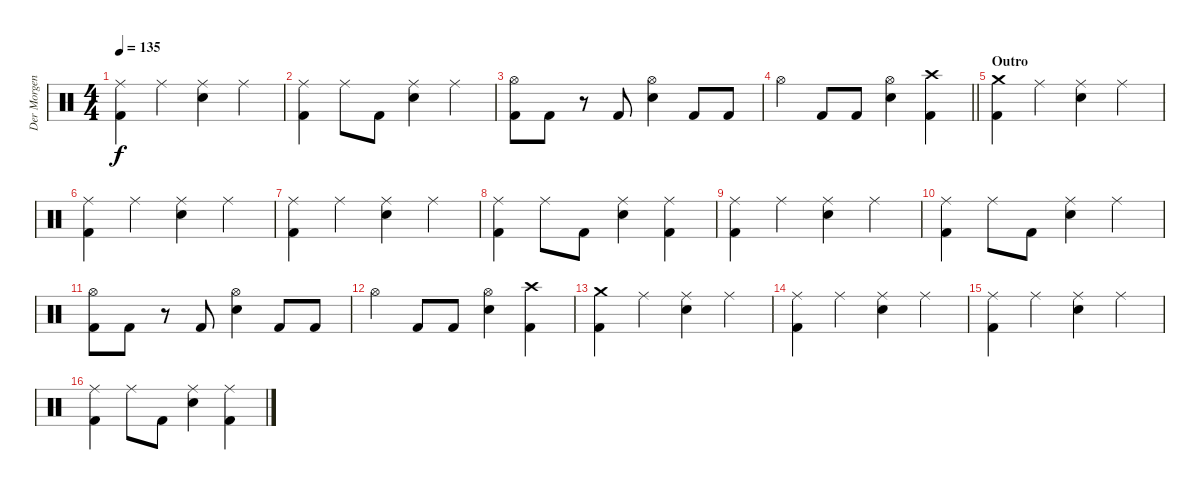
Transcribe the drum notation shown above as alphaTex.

\track ("Der Morgenstern" "Der Morgen") {instrument percussion}
\staff {score}
\articulation defaults
\ts (4 4)
\tempo 135
\clef neutral
\ks c
("Ride (middle)" "Kick (hit) 2").4{dy f} "Ride (middle)".4 ("Ride (middle)" "Electric Snare (hit)").4 "Ride (middle)".4 |
("Ride (middle)" "Kick (hit) 2").4 "Ride (middle)".8 "Kick (hit) 2".8 ("Ride (middle)" "Electric Snare (hit)").4 "Ride (middle)".4 |
("Hi-Hat (open)" "Kick (hit) 2").8 "Kick (hit) 2".8 r.8 "Kick (hit) 2".8 ("Hi-Hat (open)" "Electric Snare (hit)").4 "Kick (hit) 2".8 "Kick (hit) 2".8 |
\barLineRight lightlight "Hi-Hat (open)".4 "Kick (hit) 2".8 "Kick (hit) 2".8
("Hi-Hat (open)" "Electric Snare (hit)").4 ("Crash high (hit)" "Kick (hit) 2").4 |
\section ("" "Outro")
("Crash medium (hit)" "Kick (hit) 2").4 "Ride (middle)".4 ("Ride (middle)" "Electric Snare (hit)").4 "Ride (middle)".4 |
("Ride (middle)" "Kick (hit) 2").4 "Ride (middle)".4 ("Ride (middle)" "Electric Snare (hit)").4 "Ride (middle)".4 |
("Ride (middle)" "Kick (hit) 2").4 "Ride (middle)".4 ("Ride (middle)" "Electric Snare (hit)").4 "Ride (middle)".4 |
("Ride (middle)" "Kick (hit) 2").4 "Ride (middle)".8 "Kick (hit) 2".8 ("Ride (middle)" "Electric Snare (hit)").4 ("Ride (middle)" "Kick (hit) 2").4 |
("Ride (middle)" "Kick (hit) 2").4 "Ride (middle)".4 ("Ride (middle)" "Electric Snare (hit)").4 "Ride (middle)".4 |
("Ride (middle)" "Kick (hit) 2").4 "Ride (middle)".8 "Kick (hit) 2".8 ("Ride (middle)" "Electric Snare (hit)").4 "Ride (middle)".4 |
("Hi-Hat (open)" "Kick (hit) 2").8 "Kick (hit) 2".8 r.8 "Kick (hit) 2".8 ("Hi-Hat (open)" "Electric Snare (hit)").4 "Kick (hit) 2".8 "Kick (hit) 2".8 |
"Hi-Hat (open)".4 "Kick (hit) 2".8 "Kick (hit) 2".8 ("Hi-Hat (open)" "Electric Snare (hit)").4 ("Crash high (hit)" "Kick (hit) 2").4 |
("Crash medium (hit)" "Kick (hit) 2").4 "Ride (middle)".4 ("Ride (middle)" "Electric Snare (hit)").4 "Ride (middle)".4 |
("Ride (middle)" "Kick (hit) 2").4 "Ride (middle)".4 ("Ride (middle)" "Electric Snare (hit)").4 "Ride (middle)".4 |
("Ride (middle)" "Kick (hit) 2").4 "Ride (middle)".4 ("Ride (middle)" "Electric Snare (hit)").4 "Ride (middle)".4 |
("Ride (middle)" "Kick (hit) 2").4 "Ride (middle)".8 "Kick (hit) 2".8 ("Ride (middle)" "Electric Snare (hit)").4 ("Ride (middle)" "Kick (hit) 2").4
